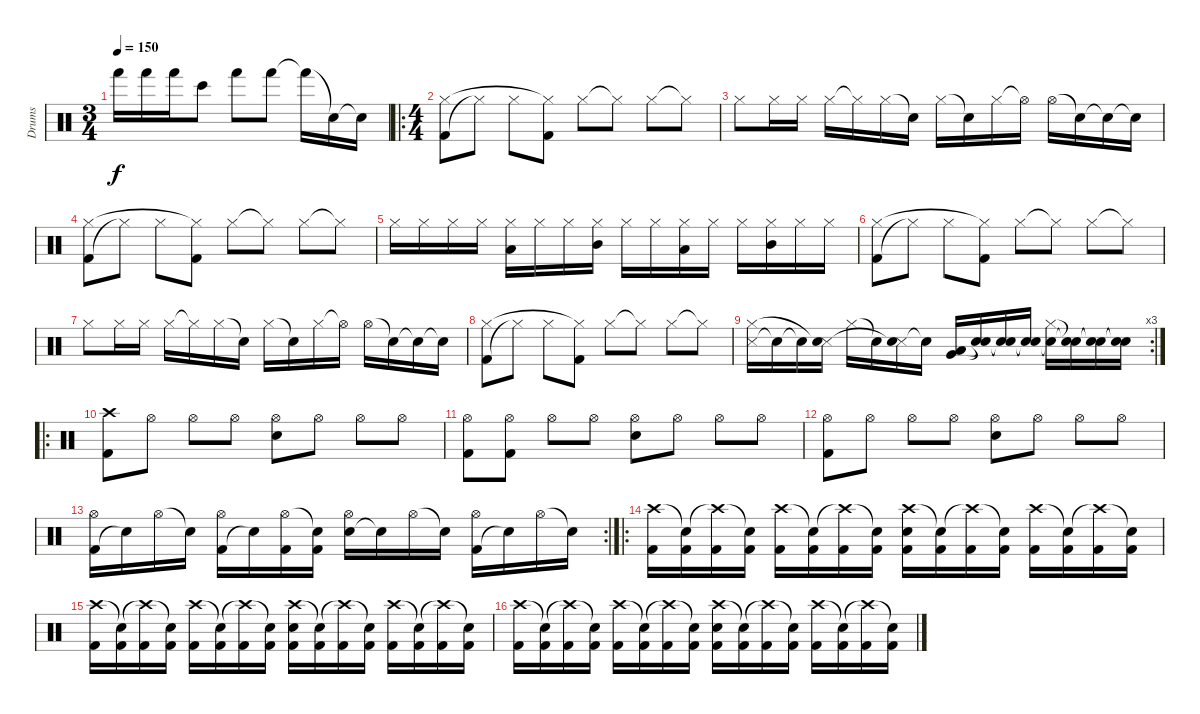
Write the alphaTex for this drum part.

\track ("Drums" "Drums") {instrument percussion}
\staff {score}
\articulation defaults
\ts (3 4)
\tempo 150
\clef neutral
\ks c "Hand (hit)".16{dy f} "Hand (hit)".16 "Hand (hit)".16 "Bongo High (hit)".8 "Hand (hit)".8 "Hand (hit)".8 "Hand (hit)"{t}.16 "Snare (hit)"{t}.16 "Snare (hit)"{t}.16
|
\ro
\ts (4 4)
("Kick (hit) 2" "Hi-Hat (closed)").8 "Hi-Hat (closed)"{t}.8 "Hi-Hat (closed)".8 ("Kick (hit) 2" "Hi-Hat (closed)"{t}).8 "Hi-Hat (closed)".8 "Hi-Hat (closed)"{t}.8 "Hi-Hat (closed)".8 "Hi-Hat (closed)"{t}.8 |
"Hi-Hat (closed)".8 "Hi-Hat (closed)".16 "Hi-Hat (closed)".16 "Hi-Hat (closed)".16 "Hi-Hat (closed)"{t}.16 "Hi-Hat (closed)".16 "Snare (hit)"{t}.16 "Hi-Hat (closed)".16 "Snare (hit)"{t}.16 "Hi-Hat (closed)".16 "Hi-Hat (open)"{t}.16 "Hi-Hat (open)".16 "Snare (hit)"{t}.16 "Snare (hit)"{t}.16 "Snare (hit)"{t}.16 |
("Kick (hit) 2" "Hi-Hat (closed)").8 "Hi-Hat (closed)"{t}.8 "Hi-Hat (closed)".8 ("Kick (hit) 2" "Hi-Hat (closed)"{t}).8 "Hi-Hat (closed)".8 "Hi-Hat (closed)"{t}.8 "Hi-Hat (closed)".8 "Hi-Hat (closed)"{t}.8 |
"Hi-Hat (closed)".16 "Hi-Hat (closed)".16 "Hi-Hat (closed)".16 "Hi-Hat (closed)".16 ("Low Tom (hit)" "Hi-Hat (closed)").16 "Hi-Hat (closed)".16 "Hi-Hat (closed)".16 ("Mid Tom (hit)" "Hi-Hat (closed)").16 "Hi-Hat (closed)".16 "Hi-Hat (closed)".16 ("Low Tom (hit)" "Hi-Hat (closed)").16 "Hi-Hat (closed)".16 "Hi-Hat (closed)".16 ("Mid Tom (hit)" "Hi-Hat (closed)").16 "Hi-Hat (closed)".16 "Hi-Hat (closed)".16 |
("Kick (hit) 2" "Hi-Hat (closed)").8 "Hi-Hat (closed)"{t}.8 "Hi-Hat (closed)".8 ("Kick (hit) 2" "Hi-Hat (closed)"{t}).8 "Hi-Hat (closed)".8 "Hi-Hat (closed)"{t}.8 "Hi-Hat (closed)".8 "Hi-Hat (closed)"{t}.8 |
"Hi-Hat (closed)".8 "Hi-Hat (closed)".16 "Hi-Hat (closed)".16 "Hi-Hat (closed)".16 "Hi-Hat (closed)"{t}.16 "Hi-Hat (closed)".16 "Snare (hit)"{t}.16 "Hi-Hat (closed)".16 "Snare (hit)"{t}.16 "Hi-Hat (closed)".16 "Hi-Hat (open)"{t}.16 "Hi-Hat (open)".16 "Snare (hit)"{t}.16 "Snare (hit)"{t}.16 "Snare (hit)"{t}.16 |
("Kick (hit) 2" "Hi-Hat (closed)").8 "Hi-Hat (closed)"{t}.8 "Hi-Hat (closed)".8 ("Kick (hit) 2" "Hi-Hat (closed)"{t}).8 "Hi-Hat (closed)".8 "Hi-Hat (closed)"{t}.8 "Hi-Hat (closed)".8 "Hi-Hat (closed)"{t}.8 |
\rc 3
("Snare (side stick) 3" "Hi-Hat (closed)").16 "Snare (hit)"{t}.16 "Snare (hit)"{t}.16 ("Snare (side stick) 3" "Snare (hit)"{t}).16 "Hi-Hat (closed)".16 "Snare (hit)"{t}.16 ("Snare (side stick) 3" "Snare (hit)"{t}).16 "Snare (hit)"{t}.16 ("Low Floor Tom (hit)" "Very Low Tom (hit)").16 ("Snare (hit)"{t} "Snare (hit)"{t}).16 ("Snare (hit)"{t} "Snare (hit)"{t}).16 ("Snare (hit)"{t} "Snare (hit)"{t}).16 ("Snare (hit)"{t} "Hi-Hat (closed)").16 ("Snare (hit)"{t} "Snare (hit)"{t}).16 ("Snare (hit)"{t} "Snare (hit)"{t}).16 ("Snare (hit)"{t} "Snare (hit)"{t}).16 |
\ro
("Kick (hit) 2" "Crash high (hit)").8 "Hi-Hat (open)".8 "Hi-Hat (open)".8 "Hi-Hat (open)".8 ("Electric Snare (hit)" "Hi-Hat (open)").8 "Hi-Hat (open)".8 "Hi-Hat (open)".8 "Hi-Hat (open)".8 |
("Kick (hit) 2" "Hi-Hat (open)").8 ("Kick (hit) 2" "Hi-Hat (open)").8 "Hi-Hat (open)".8 "Hi-Hat (open)".8 ("Electric Snare (hit)" "Hi-Hat (open)").8 "Hi-Hat (open)".8 "Hi-Hat (open)".8 "Hi-Hat (open)".8 |
("Kick (hit) 2" "Hi-Hat (open)").8 "Hi-Hat (open)".8 "Hi-Hat (open)".8 "Hi-Hat (open)".8 ("Electric Snare (hit)" "Hi-Hat (open)").8 "Hi-Hat (open)".8 "Hi-Hat (open)".8 "Hi-Hat (open)".8 |
\rc 2
("Kick (hit) 2" "Hi-Hat (open)").16 "Snare (hit)"{t}.16 "Hi-Hat (open)".16 "Snare (hit)"{t}.16 ("Kick (hit) 2" "Hi-Hat (open)").16 "Snare (hit)"{t}.16 ("Kick (hit) 2" "Hi-Hat (open)").16 ("Kick (hit) 2" "Snare (hit)"{t}).16 ("Electric Snare (hit)" "Hi-Hat (open)").16 "Snare (hit)"{t}.16 "Hi-Hat (open)".16 "Snare (hit)"{t}.16 ("Kick (hit) 2" "Hi-Hat (open)").16 "Snare (hit)"{t}.16 "Hi-Hat (open)".16 "Snare (hit)"{t}.16 |
\ro
("Kick (hit) 2" "Crash high (hit)").16 ("Kick (hit) 2" "Snare (hit)"{t}).16 ("Kick (hit) 2" "Crash high (hit)"{t}).16 ("Kick (hit) 2" "Snare (hit)"{t}).16 ("Kick (hit) 2" "Crash high (hit)").16 ("Kick (hit) 2" "Snare (hit)"{t}).16 ("Kick (hit) 2" "Crash high (hit)"{t}).16 ("Kick (hit) 2" "Snare (hit)"{t}).16 ("Kick (hit) 2" "Crash high (hit)" "Electric Snare (hit)").16 ("Kick (hit) 2" "Snare (hit)"{t}).16 ("Kick (hit) 2" "Crash high (hit)"{t}).16 ("Kick (hit) 2" "Snare (hit)"{t}).16 ("Kick (hit) 2" "Crash high (hit)").16 ("Kick (hit) 2" "Snare (hit)"{t}).16 ("Kick (hit) 2" "Crash high (hit)"{t}).16 ("Kick (hit) 2" "Snare (hit)"{t}).16 |
("Kick (hit) 2" "Crash high (hit)").16 ("Kick (hit) 2" "Snare (hit)"{t}).16 ("Kick (hit) 2" "Crash high (hit)"{t}).16 ("Kick (hit) 2" "Snare (hit)"{t}).16 ("Kick (hit) 2" "Crash high (hit)").16 ("Kick (hit) 2" "Snare (hit)"{t}).16 ("Kick (hit) 2" "Crash high (hit)"{t}).16 ("Kick (hit) 2" "Snare (hit)"{t}).16 ("Kick (hit) 2" "Crash high (hit)" "Electric Snare (hit)").16 ("Kick (hit) 2" "Snare (hit)"{t}).16 ("Kick (hit) 2" "Crash high (hit)"{t}).16 ("Kick (hit) 2" "Snare (hit)"{t}).16 ("Kick (hit) 2" "Crash high (hit)").16 ("Kick (hit) 2" "Snare (hit)"{t}).16 ("Kick (hit) 2" "Crash high (hit)"{t}).16 ("Kick (hit) 2" "Snare (hit)"{t}).16 |
("Kick (hit) 2" "Crash high (hit)").16 ("Kick (hit) 2" "Snare (hit)"{t}).16 ("Kick (hit) 2" "Crash high (hit)"{t}).16 ("Kick (hit) 2" "Snare (hit)"{t}).16 ("Kick (hit) 2" "Crash high (hit)").16 ("Kick (hit) 2" "Snare (hit)"{t}).16 ("Kick (hit) 2" "Crash high (hit)"{t}).16 ("Kick (hit) 2" "Snare (hit)"{t}).16 ("Kick (hit) 2" "Crash high (hit)" "Electric Snare (hit)").16 ("Kick (hit) 2" "Snare (hit)"{t}).16 ("Kick (hit) 2" "Crash high (hit)"{t}).16 ("Kick (hit) 2" "Snare (hit)"{t}).16 ("Kick (hit) 2" "Crash high (hit)").16 ("Kick (hit) 2" "Snare (hit)"{t}).16 ("Kick (hit) 2" "Crash high (hit)"{t}).16 ("Kick (hit) 2" "Snare (hit)"{t}).16
